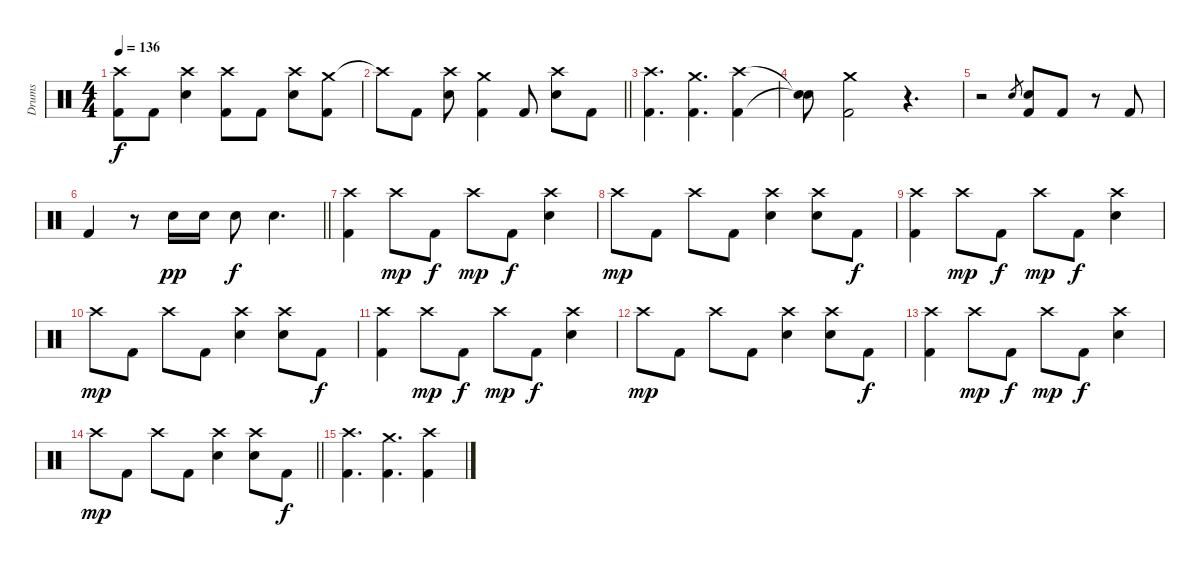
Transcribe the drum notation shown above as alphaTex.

\track ("Drums" "Drums") {instrument percussion}
\staff {score}
\articulation defaults
\ts (4 4)
\tempo 136
\clef neutral
\ks c
("Crash high (hit)" "Kick (hit) 2").8{dy f} "Kick (hit) 2".8 ("Crash high (hit)" "Snare (hit) 2").4 ("Crash high (hit)" "Kick (hit) 2").8 "Kick (hit) 2".8 ("Crash high (hit)" "Snare (hit) 2").8 ("Crash medium (hit)" "Kick (hit) 2").8 |
\barLineRight lightlight "Crash high (hit)"{t}.8 "Kick (hit) 2".8
("Crash high (hit)" "Snare (hit) 2").8 ("Crash medium (hit)" "Kick (hit) 2").4 "Kick (hit) 2".8 ("Crash high (hit)" "Snare (hit) 2").8 "Kick (hit) 2".8 |
\section ("" "")
("Crash high (hit)" "Kick (hit) 2").4{d} ("Crash medium (hit)" "Kick (hit) 2").4{d} ("Crash high (hit)" "Kick (hit) 2").4 |
("Snare (hit)"{t} "Snare (hit)"{t}).8 ("Crash medium (hit)" "Kick (hit) 2").2 r.4{d} |
r.2 "Snare (hit) 2".8{gr} ("Snare (hit) 2" "Kick (hit) 2").8 "Kick (hit) 2".8 r.8 "Kick (hit) 2".8 |
\barLineRight lightlight "Kick (hit) 2".4
r.8 "Snare (hit) 2".16{dy pp} "Snare (hit) 2".16 "Snare (hit) 2".8{dy f} "Snare (hit) 2".4{d} |
\section ("" "")
("Crash high (hit)" "Kick (hit) 2").4 "Crash high (hit)".8{dy mp} "Kick (hit) 2".8{dy f} "Crash high (hit)".8{dy mp} "Kick (hit) 2".8{dy f} ("Crash high (hit)" "Snare (hit) 2").4 |
"Crash high (hit)".8{dy mp} "Kick (hit) 2".8 "Crash high (hit)".8 "Kick (hit) 2".8 ("Crash high (hit)" "Snare (hit) 2").4 ("Crash high (hit)" "Snare (hit) 2").8 "Kick (hit) 2".8{dy f} |
("Crash high (hit)" "Kick (hit) 2").4 "Crash high (hit)".8{dy mp} "Kick (hit) 2".8{dy f} "Crash high (hit)".8{dy mp} "Kick (hit) 2".8{dy f} ("Crash high (hit)" "Snare (hit) 2").4 |
"Crash high (hit)".8{dy mp} "Kick (hit) 2".8 "Crash high (hit)".8 "Kick (hit) 2".8 ("Crash high (hit)" "Snare (hit) 2").4 ("Crash high (hit)" "Snare (hit) 2").8 "Kick (hit) 2".8{dy f} |
("Crash high (hit)" "Kick (hit) 2").4 "Crash high (hit)".8{dy mp} "Kick (hit) 2".8{dy f} "Crash high (hit)".8{dy mp} "Kick (hit) 2".8{dy f} ("Crash high (hit)" "Snare (hit) 2").4 |
"Crash high (hit)".8{dy mp} "Kick (hit) 2".8 "Crash high (hit)".8 "Kick (hit) 2".8 ("Crash high (hit)" "Snare (hit) 2").4 ("Crash high (hit)" "Snare (hit) 2").8 "Kick (hit) 2".8{dy f} |
("Crash high (hit)" "Kick (hit) 2").4 "Crash high (hit)".8{dy mp} "Kick (hit) 2".8{dy f} "Crash high (hit)".8{dy mp} "Kick (hit) 2".8{dy f} ("Crash high (hit)" "Snare (hit) 2").4 |
\barLineRight lightlight "Crash high (hit)".8{dy mp} "Kick (hit) 2".8 "Crash high (hit)".8 "Kick (hit) 2".8
("Crash high (hit)" "Snare (hit) 2").4 ("Crash high (hit)" "Snare (hit) 2").8 "Kick (hit) 2".8{dy f} |
\section ("" "")
("Crash high (hit)" "Kick (hit) 2").4{d} ("Crash medium (hit)" "Kick (hit) 2").4{d} ("Crash high (hit)" "Kick (hit) 2").4
